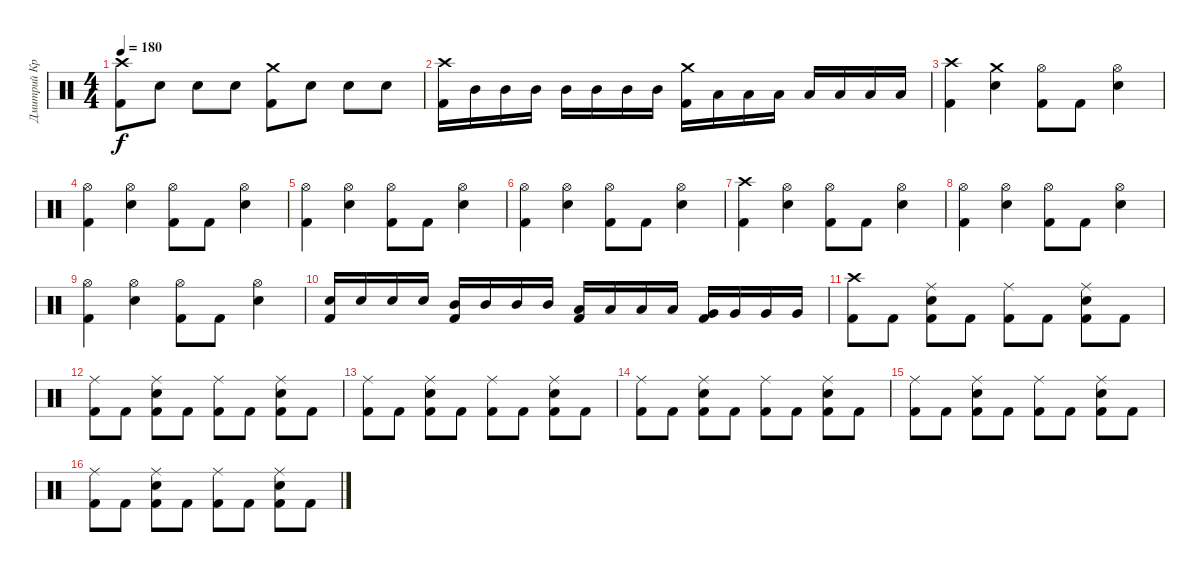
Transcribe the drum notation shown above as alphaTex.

\track ("Дмитрий Кривенков" "Дмитрий Кр") {instrument percussion}
\staff {score}
\articulation defaults
\ts (4 4)
\tempo 180
\clef neutral
\ks c
("Crash high (hit)" "Kick (hit) 2").8{dy f} "Electric Snare (hit)".8 "Electric Snare (hit)".8 "Electric Snare (hit)".8 ("Crash medium (hit)" "Kick (hit) 2").8 "Electric Snare (hit)".8 "Electric Snare (hit)".8 "Electric Snare (hit)".8 |
("Crash high (hit)" "Kick (hit) 2").16 "Mid Tom (hit)".16 "Mid Tom (hit)".16 "Mid Tom (hit)".16 "Mid Tom (hit)".16 "Mid Tom (hit)".16 "Mid Tom (hit)".16 "Mid Tom (hit)".16 ("Crash medium (hit)" "Kick (hit) 2").16 "Low Tom (hit)".16 "Low Tom (hit)".16 "Low Tom (hit)".16 "Low Tom (hit)".16 "Low Tom (hit)".16 "Low Tom (hit)".16 "Low Tom (hit)".16 |
("Crash high (hit)" "Kick (hit) 2").4 ("Crash medium (hit)" "Electric Snare (hit)").4 ("Hi-Hat (open)" "Kick (hit) 2").8 "Kick (hit) 2".8 ("Hi-Hat (open)" "Electric Snare (hit)").4 |
("Hi-Hat (open)" "Kick (hit) 2").4 ("Hi-Hat (open)" "Electric Snare (hit)").4 ("Hi-Hat (open)" "Kick (hit) 2").8 "Kick (hit) 2".8 ("Hi-Hat (open)" "Electric Snare (hit)").4 |
("Hi-Hat (open)" "Kick (hit) 2").4 ("Hi-Hat (open)" "Electric Snare (hit)").4 ("Hi-Hat (open)" "Kick (hit) 2").8 "Kick (hit) 2".8 ("Hi-Hat (open)" "Electric Snare (hit)").4 |
("Hi-Hat (open)" "Kick (hit) 2").4 ("Hi-Hat (open)" "Electric Snare (hit)").4 ("Hi-Hat (open)" "Kick (hit) 2").8 "Kick (hit) 2".8 ("Hi-Hat (open)" "Electric Snare (hit)").4 |
("Crash high (hit)" "Kick (hit) 2").4 ("Hi-Hat (open)" "Electric Snare (hit)").4 ("Hi-Hat (open)" "Kick (hit) 2").8 "Kick (hit) 2".8 ("Hi-Hat (open)" "Electric Snare (hit)").4 |
("Hi-Hat (open)" "Kick (hit) 2").4 ("Hi-Hat (open)" "Electric Snare (hit)").4 ("Hi-Hat (open)" "Kick (hit) 2").8 "Kick (hit) 2".8 ("Hi-Hat (open)" "Electric Snare (hit)").4 |
("Hi-Hat (open)" "Kick (hit) 2").4 ("Hi-Hat (open)" "Electric Snare (hit)").4 ("Hi-Hat (open)" "Kick (hit) 2").8 "Kick (hit) 2".8 ("Hi-Hat (open)" "Electric Snare (hit)").4 |
("Electric Snare (hit)" "Kick (hit) 2").16 "Electric Snare (hit)".16 "Electric Snare (hit)".16 "Electric Snare (hit)".16 ("Mid Tom (hit)" "Kick (hit) 2").16 "Mid Tom (hit)".16 "Mid Tom (hit)".16 "Mid Tom (hit)".16 ("Low Tom (hit)" "Kick (hit) 2").16 "Low Tom (hit)".16 "Low Tom (hit)".16 "Low Tom (hit)".16 ("Very Low Tom (hit)" "Kick (hit) 2").16 "Very Low Tom (hit)".16 "Very Low Tom (hit)".16 "Very Low Tom (hit)".16 |
("Crash high (hit)" "Kick (hit) 2").8 "Kick (hit) 2".8 ("Ride (middle)" "Electric Snare (hit)" "Kick (hit) 2").8 "Kick (hit) 2".8 ("Ride (middle)" "Kick (hit) 2").8 "Kick (hit) 2".8 ("Ride (middle)" "Electric Snare (hit)" "Kick (hit) 2").8 "Kick (hit) 2".8 |
("Ride (middle)" "Kick (hit) 2").8 "Kick (hit) 2".8 ("Ride (middle)" "Electric Snare (hit)" "Kick (hit) 2").8 "Kick (hit) 2".8 ("Ride (middle)" "Kick (hit) 2").8 "Kick (hit) 2".8 ("Ride (middle)" "Electric Snare (hit)" "Kick (hit) 2").8 "Kick (hit) 2".8 |
("Ride (middle)" "Kick (hit) 2").8 "Kick (hit) 2".8 ("Ride (middle)" "Electric Snare (hit)" "Kick (hit) 2").8 "Kick (hit) 2".8 ("Ride (middle)" "Kick (hit) 2").8 "Kick (hit) 2".8 ("Ride (middle)" "Electric Snare (hit)" "Kick (hit) 2").8 "Kick (hit) 2".8 |
("Ride (middle)" "Kick (hit) 2").8 "Kick (hit) 2".8 ("Ride (middle)" "Electric Snare (hit)" "Kick (hit) 2").8 "Kick (hit) 2".8 ("Ride (middle)" "Kick (hit) 2").8 "Kick (hit) 2".8 ("Ride (middle)" "Electric Snare (hit)" "Kick (hit) 2").8 "Kick (hit) 2".8 |
("Ride (middle)" "Kick (hit) 2").8 "Kick (hit) 2".8 ("Ride (middle)" "Electric Snare (hit)" "Kick (hit) 2").8 "Kick (hit) 2".8 ("Ride (middle)" "Kick (hit) 2").8 "Kick (hit) 2".8 ("Ride (middle)" "Electric Snare (hit)" "Kick (hit) 2").8 "Kick (hit) 2".8 |
("Ride (middle)" "Kick (hit) 2").8 "Kick (hit) 2".8 ("Ride (middle)" "Electric Snare (hit)" "Kick (hit) 2").8 "Kick (hit) 2".8 ("Ride (middle)" "Kick (hit) 2").8 "Kick (hit) 2".8 ("Ride (middle)" "Electric Snare (hit)" "Kick (hit) 2").8 "Kick (hit) 2".8
